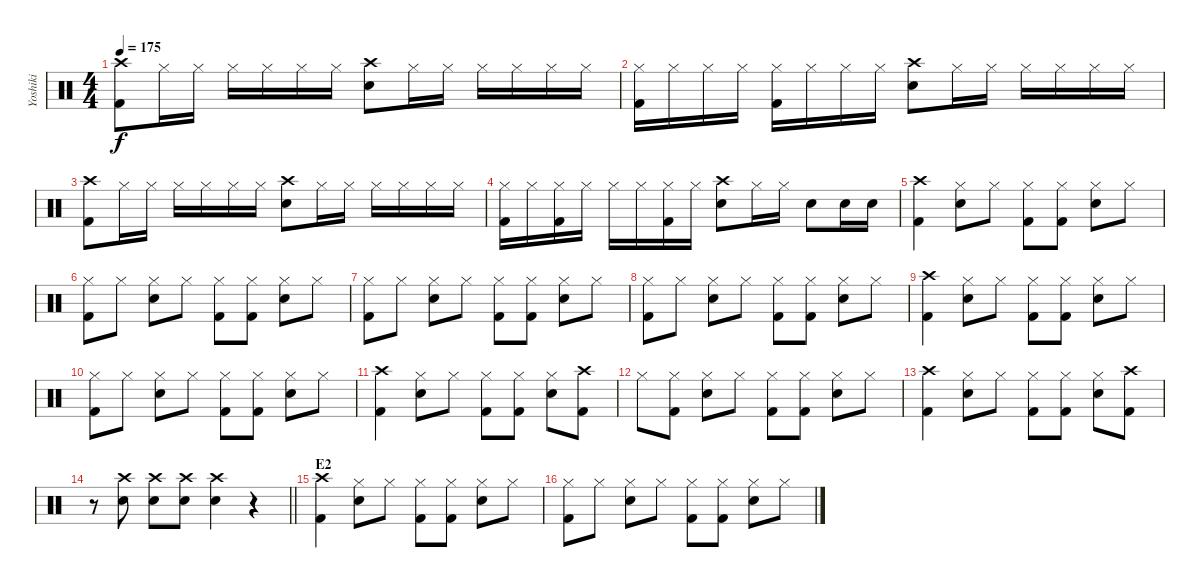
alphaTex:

\track ("Yoshiki" "Yoshiki") {instrument percussion}
\staff {score}
\articulation defaults
\ts (4 4)
\tempo 175
\clef neutral
\ks c
("Crash high (hit)" "Kick (hit) 2").8{dy f} "Hi-Hat (closed)".16 "Hi-Hat (closed)".16 "Hi-Hat (closed)".16 "Hi-Hat (closed)".16 "Hi-Hat (closed)".16 "Hi-Hat (closed)".16 ("Crash high (hit)" "Electric Snare (hit)").8 "Hi-Hat (closed)".16 "Hi-Hat (closed)".16 "Hi-Hat (closed)".16 "Hi-Hat (closed)".16 "Hi-Hat (closed)".16 "Hi-Hat (closed)".16 |
("Hi-Hat (closed)" "Kick (hit) 2").16 "Hi-Hat (closed)".16 "Hi-Hat (closed)".16 "Hi-Hat (closed)".16 ("Hi-Hat (closed)" "Kick (hit) 2").16 "Hi-Hat (closed)".16 "Hi-Hat (closed)".16 "Hi-Hat (closed)".16 ("Crash high (hit)" "Electric Snare (hit)").8 "Hi-Hat (closed)".16 "Hi-Hat (closed)".16 "Hi-Hat (closed)".16 "Hi-Hat (closed)".16 "Hi-Hat (closed)".16 "Hi-Hat (closed)".16 |
("Crash high (hit)" "Kick (hit) 2").8 "Hi-Hat (closed)".16 "Hi-Hat (closed)".16 "Hi-Hat (closed)".16 "Hi-Hat (closed)".16 "Hi-Hat (closed)".16 "Hi-Hat (closed)".16 ("Crash high (hit)" "Electric Snare (hit)").8 "Hi-Hat (closed)".16 "Hi-Hat (closed)".16 "Hi-Hat (closed)".16 "Hi-Hat (closed)".16 "Hi-Hat (closed)".16 "Hi-Hat (closed)".16 |
("Hi-Hat (closed)" "Kick (hit) 2").16 "Hi-Hat (closed)".16 ("Hi-Hat (closed)" "Kick (hit) 2").16 "Hi-Hat (closed)".16 "Hi-Hat (closed)".16 "Hi-Hat (closed)".16 ("Hi-Hat (closed)" "Kick (hit) 2").16 "Hi-Hat (closed)".16 ("Crash high (hit)" "Electric Snare (hit)").8 "Hi-Hat (closed)".16 "Hi-Hat (closed)".16 "Electric Snare (hit)".8 "Electric Snare (hit)".16 "Electric Snare (hit)".16 |
("Crash high (hit)" "Kick (hit) 2").4 ("Hi-Hat (closed)" "Electric Snare (hit)").8 "Hi-Hat (closed)".8 ("Hi-Hat (closed)" "Kick (hit) 2").8 ("Hi-Hat (closed)" "Kick (hit) 2").8 ("Hi-Hat (closed)" "Electric Snare (hit)").8 "Hi-Hat (closed)".8 |
("Hi-Hat (closed)" "Kick (hit) 2").8 "Hi-Hat (closed)".8 ("Hi-Hat (closed)" "Electric Snare (hit)").8 "Hi-Hat (closed)".8 ("Hi-Hat (closed)" "Kick (hit) 2").8 ("Hi-Hat (closed)" "Kick (hit) 2").8 ("Hi-Hat (closed)" "Electric Snare (hit)").8 "Hi-Hat (closed)".8 |
("Hi-Hat (closed)" "Kick (hit) 2").8 "Hi-Hat (closed)".8 ("Hi-Hat (closed)" "Electric Snare (hit)").8 "Hi-Hat (closed)".8 ("Hi-Hat (closed)" "Kick (hit) 2").8 ("Hi-Hat (closed)" "Kick (hit) 2").8 ("Hi-Hat (closed)" "Electric Snare (hit)").8 "Hi-Hat (closed)".8 |
("Hi-Hat (closed)" "Kick (hit) 2").8 "Hi-Hat (closed)".8 ("Hi-Hat (closed)" "Electric Snare (hit)").8 "Hi-Hat (closed)".8 ("Hi-Hat (closed)" "Kick (hit) 2").8 ("Hi-Hat (closed)" "Kick (hit) 2").8 ("Hi-Hat (closed)" "Electric Snare (hit)").8 "Hi-Hat (closed)".8 |
("Crash high (hit)" "Kick (hit) 2").4 ("Hi-Hat (closed)" "Electric Snare (hit)").8 "Hi-Hat (closed)".8 ("Hi-Hat (closed)" "Kick (hit) 2").8 ("Hi-Hat (closed)" "Kick (hit) 2").8 ("Hi-Hat (closed)" "Electric Snare (hit)").8 "Hi-Hat (closed)".8 |
("Hi-Hat (closed)" "Kick (hit) 2").8 "Hi-Hat (closed)".8 ("Hi-Hat (closed)" "Electric Snare (hit)").8 "Hi-Hat (closed)".8 ("Hi-Hat (closed)" "Kick (hit) 2").8 ("Hi-Hat (closed)" "Kick (hit) 2").8 ("Hi-Hat (closed)" "Electric Snare (hit)").8 "Hi-Hat (closed)".8 |
("Crash high (hit)" "Kick (hit) 2").4 ("Hi-Hat (closed)" "Electric Snare (hit)").8 "Hi-Hat (closed)".8 ("Hi-Hat (closed)" "Kick (hit) 2").8 ("Hi-Hat (closed)" "Kick (hit) 2").8 ("Hi-Hat (closed)" "Electric Snare (hit)").8 ("Crash high (hit)" "Kick (hit) 2").8 |
"Hi-Hat (closed)".8 ("Hi-Hat (closed)" "Kick (hit) 2").8 ("Hi-Hat (closed)" "Electric Snare (hit)").8 "Hi-Hat (closed)".8 ("Hi-Hat (closed)" "Kick (hit) 2").8 ("Hi-Hat (closed)" "Kick (hit) 2").8 ("Hi-Hat (closed)" "Electric Snare (hit)").8 "Hi-Hat (closed)".8 |
("Crash high (hit)" "Kick (hit) 2").4 ("Hi-Hat (closed)" "Electric Snare (hit)").8 "Hi-Hat (closed)".8 ("Hi-Hat (closed)" "Kick (hit) 2").8 ("Hi-Hat (closed)" "Kick (hit) 2").8 ("Hi-Hat (closed)" "Electric Snare (hit)").8 ("Crash high (hit)" "Kick (hit) 2").8 |
\barLineRight lightlight
r.8 ("Crash high (hit)" "Electric Snare (hit)").8 ("Crash high (hit)" "Electric Snare (hit)").8 ("Crash high (hit)" "Electric Snare (hit)").8 ("Crash high (hit)" "Electric Snare (hit)").4 r.4 |
\section ("" "E2")
("Crash high (hit)" "Kick (hit) 2").4 ("Hi-Hat (closed)" "Electric Snare (hit)").8 "Hi-Hat (closed)".8 ("Hi-Hat (closed)" "Kick (hit) 2").8 ("Hi-Hat (closed)" "Kick (hit) 2").8 ("Hi-Hat (closed)" "Electric Snare (hit)").8 "Hi-Hat (closed)".8 |
("Hi-Hat (closed)" "Kick (hit) 2").8 "Hi-Hat (closed)".8 ("Hi-Hat (closed)" "Electric Snare (hit)").8 "Hi-Hat (closed)".8 ("Hi-Hat (closed)" "Kick (hit) 2").8 ("Hi-Hat (closed)" "Kick (hit) 2").8 ("Hi-Hat (closed)" "Electric Snare (hit)").8 "Hi-Hat (closed)".8
